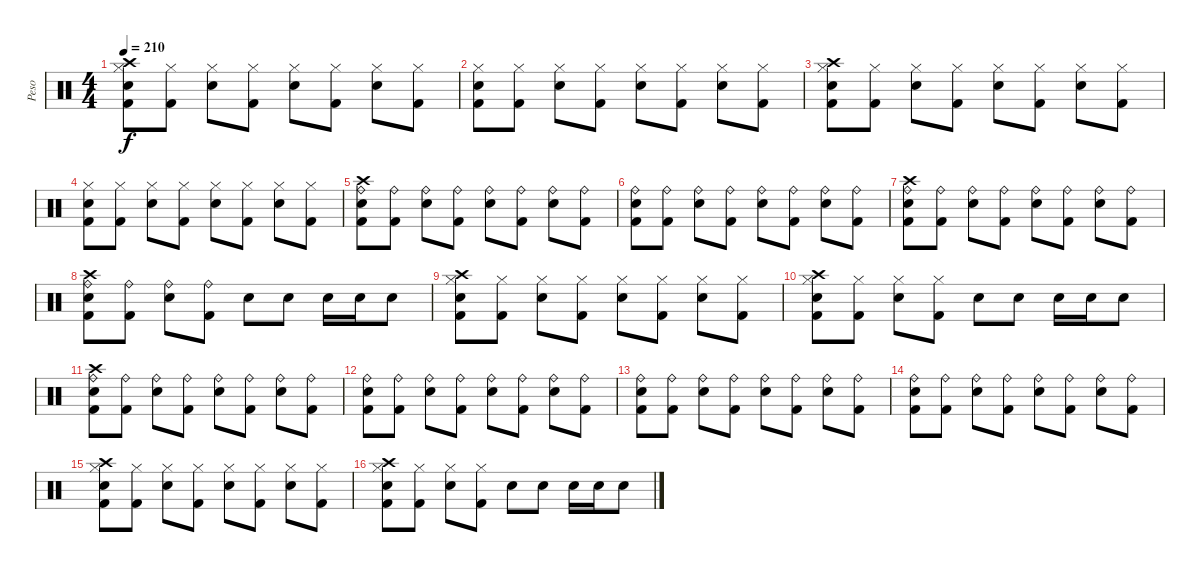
\track ("Peso" "Peso") {instrument percussion}
\staff {score}
\articulation defaults
\ts (4 4)
\tempo 210
\clef neutral
\ks c
("Crash high (hit)" "Hi-Hat (closed)" "Snare (hit) 2" "Kick (hit) 2").8{dy f} ("Hi-Hat (closed)" "Kick (hit) 2").8 ("Hi-Hat (closed)" "Snare (hit) 2").8 ("Hi-Hat (closed)" "Kick (hit) 2").8 ("Hi-Hat (closed)" "Snare (hit) 2").8 ("Hi-Hat (closed)" "Kick (hit) 2").8 ("Hi-Hat (closed)" "Snare (hit) 2").8 ("Hi-Hat (closed)" "Kick (hit) 2").8 |
("Hi-Hat (closed)" "Snare (hit) 2" "Kick (hit) 2").8 ("Hi-Hat (closed)" "Kick (hit) 2").8 ("Hi-Hat (closed)" "Snare (hit) 2").8 ("Hi-Hat (closed)" "Kick (hit) 2").8 ("Hi-Hat (closed)" "Snare (hit) 2").8 ("Hi-Hat (closed)" "Kick (hit) 2").8 ("Hi-Hat (closed)" "Snare (hit) 2").8 ("Hi-Hat (closed)" "Kick (hit) 2").8 |
("Crash high (hit)" "Hi-Hat (closed)" "Snare (hit) 2" "Kick (hit) 2").8 ("Hi-Hat (closed)" "Kick (hit) 2").8 ("Hi-Hat (closed)" "Snare (hit) 2").8 ("Hi-Hat (closed)" "Kick (hit) 2").8 ("Hi-Hat (closed)" "Snare (hit) 2").8 ("Hi-Hat (closed)" "Kick (hit) 2").8 ("Hi-Hat (closed)" "Snare (hit) 2").8 ("Hi-Hat (closed)" "Kick (hit) 2").8 |
("Hi-Hat (closed)" "Snare (hit) 2" "Kick (hit) 2").8 ("Hi-Hat (closed)" "Kick (hit) 2").8 ("Hi-Hat (closed)" "Snare (hit) 2").8 ("Hi-Hat (closed)" "Kick (hit) 2").8 ("Hi-Hat (closed)" "Snare (hit) 2").8 ("Hi-Hat (closed)" "Kick (hit) 2").8 ("Hi-Hat (closed)" "Snare (hit) 2").8 ("Hi-Hat (closed)" "Kick (hit) 2").8 |
("Crash high (hit)" "Ride (bell)" "Snare (hit) 2" "Kick (hit) 2").8 ("Ride (bell)" "Kick (hit) 2").8 ("Ride (bell)" "Snare (hit) 2").8 ("Ride (bell)" "Kick (hit) 2").8 ("Ride (bell)" "Snare (hit) 2").8 ("Ride (bell)" "Kick (hit) 2").8 ("Ride (bell)" "Snare (hit) 2").8 ("Ride (bell)" "Kick (hit) 2").8 |
("Ride (bell)" "Snare (hit) 2" "Kick (hit) 2").8 ("Ride (bell)" "Kick (hit) 2").8 ("Ride (bell)" "Snare (hit) 2").8 ("Ride (bell)" "Kick (hit) 2").8 ("Ride (bell)" "Snare (hit) 2").8 ("Ride (bell)" "Kick (hit) 2").8 ("Ride (bell)" "Snare (hit) 2").8 ("Ride (bell)" "Kick (hit) 2").8 |
("Crash high (hit)" "Ride (bell)" "Snare (hit) 2" "Kick (hit) 2").8 ("Ride (bell)" "Kick (hit) 2").8 ("Ride (bell)" "Snare (hit) 2").8 ("Ride (bell)" "Kick (hit) 2").8 ("Ride (bell)" "Snare (hit) 2").8 ("Ride (bell)" "Kick (hit) 2").8 ("Ride (bell)" "Snare (hit) 2").8 ("Ride (bell)" "Kick (hit) 2").8 |
("Crash high (hit)" "Ride (bell)" "Snare (hit) 2" "Kick (hit) 2").8 ("Ride (bell)" "Kick (hit) 2").8 ("Ride (bell)" "Snare (hit) 2").8 ("Ride (bell)" "Kick (hit) 2").8 "Snare (hit) 2".8 "Snare (hit) 2".8 "Snare (hit) 2".16 "Snare (hit) 2".16 "Snare (hit) 2".8 |
("Crash high (hit)" "Hi-Hat (closed)" "Snare (hit) 2" "Kick (hit) 2").8 ("Hi-Hat (closed)" "Kick (hit) 2").8 ("Hi-Hat (closed)" "Snare (hit) 2").8 ("Hi-Hat (closed)" "Kick (hit) 2").8 ("Hi-Hat (closed)" "Snare (hit) 2").8 ("Hi-Hat (closed)" "Kick (hit) 2").8 ("Hi-Hat (closed)" "Snare (hit) 2").8 ("Hi-Hat (closed)" "Kick (hit) 2").8 |
("Crash high (hit)" "Hi-Hat (closed)" "Snare (hit) 2" "Kick (hit) 2").8 ("Hi-Hat (closed)" "Kick (hit) 2").8 ("Hi-Hat (closed)" "Snare (hit) 2").8 ("Hi-Hat (closed)" "Kick (hit) 2").8 "Snare (hit) 2".8 "Snare (hit) 2".8 "Snare (hit) 2".16 "Snare (hit) 2".16 "Snare (hit) 2".8 |
("Crash high (hit)" "Ride (bell)" "Snare (hit) 2" "Kick (hit) 2").8 ("Ride (bell)" "Kick (hit) 2").8 ("Ride (bell)" "Snare (hit) 2").8 ("Ride (bell)" "Kick (hit) 2").8 ("Ride (bell)" "Snare (hit) 2").8 ("Ride (bell)" "Kick (hit) 2").8 ("Ride (bell)" "Snare (hit) 2").8 ("Ride (bell)" "Kick (hit) 2").8 |
("Ride (bell)" "Snare (hit) 2" "Kick (hit) 2").8 ("Ride (bell)" "Kick (hit) 2").8 ("Ride (bell)" "Snare (hit) 2").8 ("Ride (bell)" "Kick (hit) 2").8 ("Ride (bell)" "Snare (hit) 2").8 ("Ride (bell)" "Kick (hit) 2").8 ("Ride (bell)" "Snare (hit) 2").8 ("Ride (bell)" "Kick (hit) 2").8 |
("Ride (bell)" "Snare (hit) 2" "Kick (hit) 2").8 ("Ride (bell)" "Kick (hit) 2").8 ("Ride (bell)" "Snare (hit) 2").8 ("Ride (bell)" "Kick (hit) 2").8 ("Ride (bell)" "Snare (hit) 2").8 ("Ride (bell)" "Kick (hit) 2").8 ("Ride (bell)" "Snare (hit) 2").8 ("Ride (bell)" "Kick (hit) 2").8 |
("Ride (bell)" "Snare (hit) 2" "Kick (hit) 2").8 ("Ride (bell)" "Kick (hit) 2").8 ("Ride (bell)" "Snare (hit) 2").8 ("Ride (bell)" "Kick (hit) 2").8 ("Ride (bell)" "Snare (hit) 2").8 ("Ride (bell)" "Kick (hit) 2").8 ("Ride (bell)" "Snare (hit) 2").8 ("Ride (bell)" "Kick (hit) 2").8 |
("Crash high (hit)" "Hi-Hat (closed)" "Snare (hit) 2" "Kick (hit) 2").8 ("Hi-Hat (closed)" "Kick (hit) 2").8 ("Hi-Hat (closed)" "Snare (hit) 2").8 ("Hi-Hat (closed)" "Kick (hit) 2").8 ("Hi-Hat (closed)" "Snare (hit) 2").8 ("Hi-Hat (closed)" "Kick (hit) 2").8 ("Hi-Hat (closed)" "Snare (hit) 2").8 ("Hi-Hat (closed)" "Kick (hit) 2").8 |
("Crash high (hit)" "Hi-Hat (closed)" "Snare (hit) 2" "Kick (hit) 2").8 ("Hi-Hat (closed)" "Kick (hit) 2").8 ("Hi-Hat (closed)" "Snare (hit) 2").8 ("Hi-Hat (closed)" "Kick (hit) 2").8 "Snare (hit) 2".8 "Snare (hit) 2".8 "Snare (hit) 2".16 "Snare (hit) 2".16 "Snare (hit) 2".8
